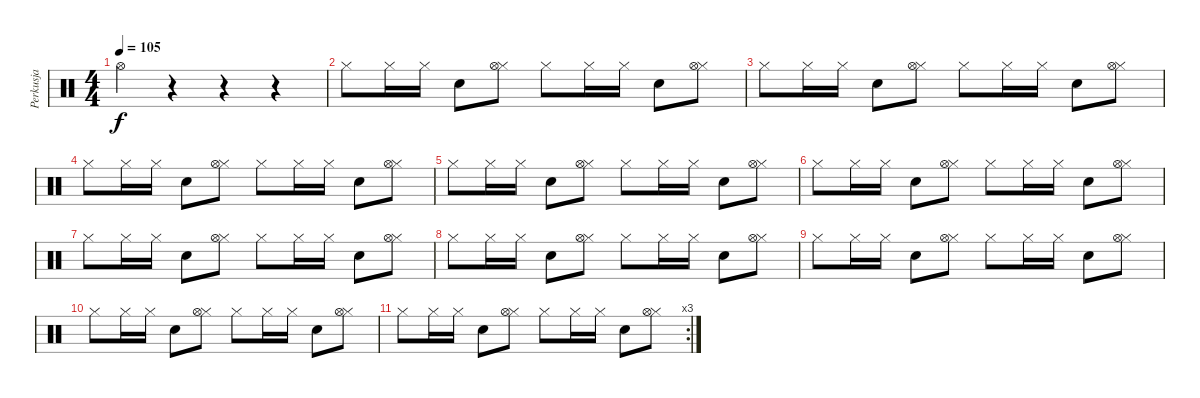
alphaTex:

\track ("Perkusja" "Perkusja") {instrument percussion}
\staff {score}
\articulation defaults
\ts (4 4)
\tempo 105
\clef neutral
\ks c "Hi-Hat (open)".4{dy f}
r.4 r.4 r.4 |
"Hi-Hat (closed)".8 "Hi-Hat (closed)".16 "Hi-Hat (closed)".16 "Snare (hit) 2".8 ("Hi-Hat (closed)" "Hi-Hat (open)").8 "Hi-Hat (closed)".8 "Hi-Hat (closed)".16 "Hi-Hat (closed)".16 "Snare (hit) 2".8 ("Hi-Hat (closed)" "Hi-Hat (open)").8 |
"Hi-Hat (closed)".8 "Hi-Hat (closed)".16 "Hi-Hat (closed)".16 "Snare (hit) 2".8 ("Hi-Hat (closed)" "Hi-Hat (open)").8 "Hi-Hat (closed)".8 "Hi-Hat (closed)".16 "Hi-Hat (closed)".16 "Snare (hit) 2".8 ("Hi-Hat (closed)" "Hi-Hat (open)").8 |
"Hi-Hat (closed)".8 "Hi-Hat (closed)".16 "Hi-Hat (closed)".16 "Snare (hit) 2".8 ("Hi-Hat (closed)" "Hi-Hat (open)").8 "Hi-Hat (closed)".8 "Hi-Hat (closed)".16 "Hi-Hat (closed)".16 "Snare (hit) 2".8 ("Hi-Hat (closed)" "Hi-Hat (open)").8 |
"Hi-Hat (closed)".8 "Hi-Hat (closed)".16 "Hi-Hat (closed)".16 "Snare (hit) 2".8 ("Hi-Hat (closed)" "Hi-Hat (open)").8 "Hi-Hat (closed)".8 "Hi-Hat (closed)".16 "Hi-Hat (closed)".16 "Snare (hit) 2".8 ("Hi-Hat (closed)" "Hi-Hat (open)").8 |
"Hi-Hat (closed)".8 "Hi-Hat (closed)".16 "Hi-Hat (closed)".16 "Snare (hit) 2".8 ("Hi-Hat (closed)" "Hi-Hat (open)").8 "Hi-Hat (closed)".8 "Hi-Hat (closed)".16 "Hi-Hat (closed)".16 "Snare (hit) 2".8 ("Hi-Hat (closed)" "Hi-Hat (open)").8 |
"Hi-Hat (closed)".8 "Hi-Hat (closed)".16 "Hi-Hat (closed)".16 "Snare (hit) 2".8 ("Hi-Hat (closed)" "Hi-Hat (open)").8 "Hi-Hat (closed)".8 "Hi-Hat (closed)".16 "Hi-Hat (closed)".16 "Snare (hit) 2".8 ("Hi-Hat (closed)" "Hi-Hat (open)").8 |
"Hi-Hat (closed)".8 "Hi-Hat (closed)".16 "Hi-Hat (closed)".16 "Snare (hit) 2".8 ("Hi-Hat (closed)" "Hi-Hat (open)").8 "Hi-Hat (closed)".8 "Hi-Hat (closed)".16 "Hi-Hat (closed)".16 "Snare (hit) 2".8 ("Hi-Hat (closed)" "Hi-Hat (open)").8 |
"Hi-Hat (closed)".8 "Hi-Hat (closed)".16 "Hi-Hat (closed)".16 "Snare (hit) 2".8 ("Hi-Hat (closed)" "Hi-Hat (open)").8 "Hi-Hat (closed)".8 "Hi-Hat (closed)".16 "Hi-Hat (closed)".16 "Snare (hit) 2".8 ("Hi-Hat (closed)" "Hi-Hat (open)").8 |
"Hi-Hat (closed)".8 "Hi-Hat (closed)".16 "Hi-Hat (closed)".16 "Snare (hit) 2".8 ("Hi-Hat (closed)" "Hi-Hat (open)").8 "Hi-Hat (closed)".8 "Hi-Hat (closed)".16 "Hi-Hat (closed)".16 "Snare (hit) 2".8 ("Hi-Hat (closed)" "Hi-Hat (open)").8 |
\rc 3 "Hi-Hat (closed)".8 "Hi-Hat (closed)".16 "Hi-Hat (closed)".16 "Snare (hit) 2".8
("Hi-Hat (closed)" "Hi-Hat (open)").8 "Hi-Hat (closed)".8 "Hi-Hat (closed)".16 "Hi-Hat (closed)".16 "Snare (hit) 2".8 ("Hi-Hat (closed)" "Hi-Hat (open)").8
